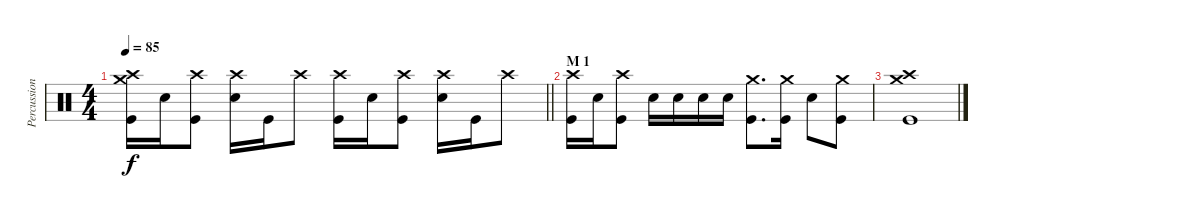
\track ("Percussion" "Percussion") {instrument percussion}
\staff {score}
\articulation defaults
\ts (4 4)
\tempo 85
\clef neutral
\barLineRight lightlight
\ks c
("Crash high (hit)" "Crash medium (hit)" "Kick (hit)").16{dy f} "Snare (hit) 2".16 ("Crash high (hit)" "Kick (hit)").8 ("Crash high (hit)" "Snare (hit) 2").16 "Kick (hit)".16 "Crash high (hit)".8 ("Crash high (hit)" "Kick (hit)").16 "Snare (hit) 2".16 ("Crash high (hit)" "Kick (hit)").8 ("Crash high (hit)" "Snare (hit) 2").16 "Kick (hit)".16 "Crash high (hit)".8 |
\section ("" "M 1")
("Crash high (hit)" "Kick (hit)").16 "Snare (hit) 2".16 ("Crash high (hit)" "Kick (hit)").8 "Snare (hit) 2".16 "Snare (hit) 2".16 "Snare (hit) 2".16 "Snare (hit) 2".16 ("Crash medium (hit)" "Kick (hit)").8{d} ("Crash medium (hit)" "Kick (hit)").16 "Snare (hit) 2".8 ("Crash medium (hit)" "Kick (hit)").8 |
("Crash medium (hit)" "Crash high (hit)" "Kick (hit)").1
